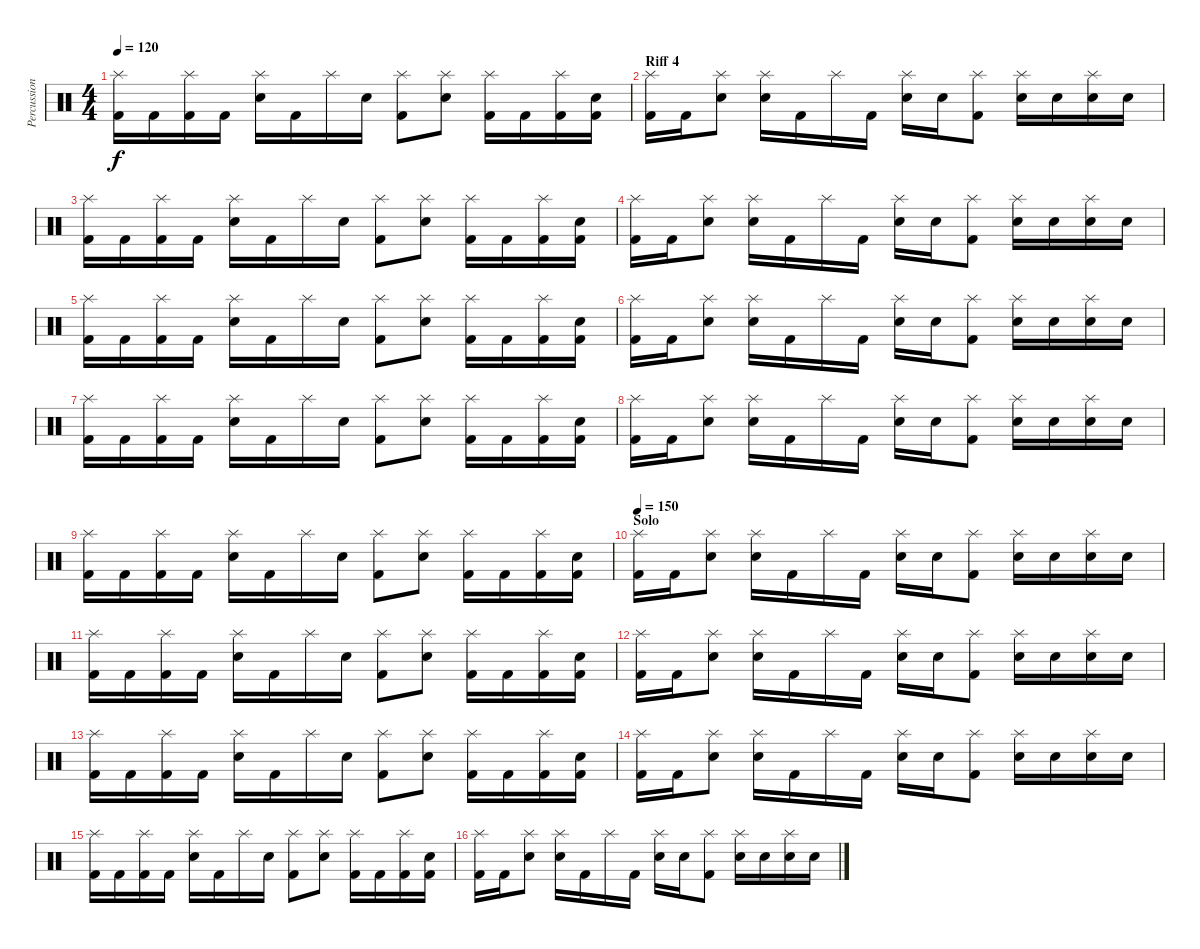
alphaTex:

\track ("Percussion" "Percussion") {instrument percussion}
\staff {score}
\articulation defaults
\ts (4 4)
\tempo 120
\clef neutral
\ks c
("Splash (hit)" "Kick (hit) 2").16{dy f} "Kick (hit) 2".16 ("Splash (hit)" "Kick (hit) 2").16 "Kick (hit) 2".16 ("Splash (hit)" "Snare (hit) 2").16 "Kick (hit) 2".16 "Splash (hit)".16 "Snare (hit) 2".16 ("Splash (hit)" "Kick (hit) 2").8 ("Splash (hit)" "Snare (hit) 2").8 ("Splash (hit)" "Kick (hit) 2").16 "Kick (hit) 2".16 ("Splash (hit)" "Kick (hit) 2").16 ("Snare (hit) 2" "Kick (hit) 2").16 |
\section ("" "Riff 4")
("Splash (hit)" "Kick (hit) 2").16 "Kick (hit) 2".16 ("Splash (hit)" "Snare (hit) 2").8 ("Splash (hit)" "Snare (hit) 2").16 "Kick (hit) 2".16 "Splash (hit)".16 "Kick (hit) 2".16 ("Splash (hit)" "Snare (hit) 2").16 "Snare (hit) 2".16 ("Splash (hit)" "Kick (hit) 2").8 ("Splash (hit)" "Snare (hit) 2").16 "Snare (hit) 2".16 ("Splash (hit)" "Snare (hit) 2").16 "Snare (hit) 2".16 |
("Splash (hit)" "Kick (hit) 2").16 "Kick (hit) 2".16 ("Splash (hit)" "Kick (hit) 2").16 "Kick (hit) 2".16 ("Splash (hit)" "Snare (hit) 2").16 "Kick (hit) 2".16 "Splash (hit)".16 "Snare (hit) 2".16 ("Splash (hit)" "Kick (hit) 2").8 ("Splash (hit)" "Snare (hit) 2").8 ("Splash (hit)" "Kick (hit) 2").16 "Kick (hit) 2".16 ("Splash (hit)" "Kick (hit) 2").16 ("Snare (hit) 2" "Kick (hit) 2").16 |
("Splash (hit)" "Kick (hit) 2").16 "Kick (hit) 2".16 ("Splash (hit)" "Snare (hit) 2").8 ("Splash (hit)" "Snare (hit) 2").16 "Kick (hit) 2".16 "Splash (hit)".16 "Kick (hit) 2".16 ("Splash (hit)" "Snare (hit) 2").16 "Snare (hit) 2".16 ("Splash (hit)" "Kick (hit) 2").8 ("Splash (hit)" "Snare (hit) 2").16 "Snare (hit) 2".16 ("Splash (hit)" "Snare (hit) 2").16 "Snare (hit) 2".16 |
("Splash (hit)" "Kick (hit) 2").16 "Kick (hit) 2".16 ("Splash (hit)" "Kick (hit) 2").16 "Kick (hit) 2".16 ("Splash (hit)" "Snare (hit) 2").16 "Kick (hit) 2".16 "Splash (hit)".16 "Snare (hit) 2".16 ("Splash (hit)" "Kick (hit) 2").8 ("Splash (hit)" "Snare (hit) 2").8 ("Splash (hit)" "Kick (hit) 2").16 "Kick (hit) 2".16 ("Splash (hit)" "Kick (hit) 2").16 ("Snare (hit) 2" "Kick (hit) 2").16 |
("Splash (hit)" "Kick (hit) 2").16 "Kick (hit) 2".16 ("Splash (hit)" "Snare (hit) 2").8 ("Splash (hit)" "Snare (hit) 2").16 "Kick (hit) 2".16 "Splash (hit)".16 "Kick (hit) 2".16 ("Splash (hit)" "Snare (hit) 2").16 "Snare (hit) 2".16 ("Splash (hit)" "Kick (hit) 2").8 ("Splash (hit)" "Snare (hit) 2").16 "Snare (hit) 2".16 ("Splash (hit)" "Snare (hit) 2").16 "Snare (hit) 2".16 |
("Splash (hit)" "Kick (hit) 2").16 "Kick (hit) 2".16 ("Splash (hit)" "Kick (hit) 2").16 "Kick (hit) 2".16 ("Splash (hit)" "Snare (hit) 2").16 "Kick (hit) 2".16 "Splash (hit)".16 "Snare (hit) 2".16 ("Splash (hit)" "Kick (hit) 2").8 ("Splash (hit)" "Snare (hit) 2").8 ("Splash (hit)" "Kick (hit) 2").16 "Kick (hit) 2".16 ("Splash (hit)" "Kick (hit) 2").16 ("Snare (hit) 2" "Kick (hit) 2").16 |
("Splash (hit)" "Kick (hit) 2").16 "Kick (hit) 2".16 ("Splash (hit)" "Snare (hit) 2").8 ("Splash (hit)" "Snare (hit) 2").16 "Kick (hit) 2".16 "Splash (hit)".16 "Kick (hit) 2".16 ("Splash (hit)" "Snare (hit) 2").16 "Snare (hit) 2".16 ("Splash (hit)" "Kick (hit) 2").8 ("Splash (hit)" "Snare (hit) 2").16 "Snare (hit) 2".16 ("Splash (hit)" "Snare (hit) 2").16 "Snare (hit) 2".16 |
("Splash (hit)" "Kick (hit) 2").16 "Kick (hit) 2".16 ("Splash (hit)" "Kick (hit) 2").16 "Kick (hit) 2".16 ("Splash (hit)" "Snare (hit) 2").16 "Kick (hit) 2".16 "Splash (hit)".16 "Snare (hit) 2".16 ("Splash (hit)" "Kick (hit) 2").8 ("Splash (hit)" "Snare (hit) 2").8 ("Splash (hit)" "Kick (hit) 2").16 "Kick (hit) 2".16 ("Splash (hit)" "Kick (hit) 2").16 ("Snare (hit) 2" "Kick (hit) 2").16 |
\section ("" "Solo")
\tempo 150
("Splash (hit)" "Kick (hit) 2").16 "Kick (hit) 2".16 ("Splash (hit)" "Snare (hit) 2").8 ("Splash (hit)" "Snare (hit) 2").16 "Kick (hit) 2".16 "Splash (hit)".16 "Kick (hit) 2".16 ("Splash (hit)" "Snare (hit) 2").16 "Snare (hit) 2".16 ("Splash (hit)" "Kick (hit) 2").8 ("Splash (hit)" "Snare (hit) 2").16 "Snare (hit) 2".16 ("Splash (hit)" "Snare (hit) 2").16 "Snare (hit) 2".16 |
("Splash (hit)" "Kick (hit) 2").16 "Kick (hit) 2".16 ("Splash (hit)" "Kick (hit) 2").16 "Kick (hit) 2".16 ("Splash (hit)" "Snare (hit) 2").16 "Kick (hit) 2".16 "Splash (hit)".16 "Snare (hit) 2".16 ("Splash (hit)" "Kick (hit) 2").8 ("Splash (hit)" "Snare (hit) 2").8 ("Splash (hit)" "Kick (hit) 2").16 "Kick (hit) 2".16 ("Splash (hit)" "Kick (hit) 2").16 ("Snare (hit) 2" "Kick (hit) 2").16 |
("Splash (hit)" "Kick (hit) 2").16 "Kick (hit) 2".16 ("Splash (hit)" "Snare (hit) 2").8 ("Splash (hit)" "Snare (hit) 2").16 "Kick (hit) 2".16 "Splash (hit)".16 "Kick (hit) 2".16 ("Splash (hit)" "Snare (hit) 2").16 "Snare (hit) 2".16 ("Splash (hit)" "Kick (hit) 2").8 ("Splash (hit)" "Snare (hit) 2").16 "Snare (hit) 2".16 ("Splash (hit)" "Snare (hit) 2").16 "Snare (hit) 2".16 |
("Splash (hit)" "Kick (hit) 2").16 "Kick (hit) 2".16 ("Splash (hit)" "Kick (hit) 2").16 "Kick (hit) 2".16 ("Splash (hit)" "Snare (hit) 2").16 "Kick (hit) 2".16 "Splash (hit)".16 "Snare (hit) 2".16 ("Splash (hit)" "Kick (hit) 2").8 ("Splash (hit)" "Snare (hit) 2").8 ("Splash (hit)" "Kick (hit) 2").16 "Kick (hit) 2".16 ("Splash (hit)" "Kick (hit) 2").16 ("Snare (hit) 2" "Kick (hit) 2").16 |
("Splash (hit)" "Kick (hit) 2").16 "Kick (hit) 2".16 ("Splash (hit)" "Snare (hit) 2").8 ("Splash (hit)" "Snare (hit) 2").16 "Kick (hit) 2".16 "Splash (hit)".16 "Kick (hit) 2".16 ("Splash (hit)" "Snare (hit) 2").16 "Snare (hit) 2".16 ("Splash (hit)" "Kick (hit) 2").8 ("Splash (hit)" "Snare (hit) 2").16 "Snare (hit) 2".16 ("Splash (hit)" "Snare (hit) 2").16 "Snare (hit) 2".16 |
("Splash (hit)" "Kick (hit) 2").16 "Kick (hit) 2".16 ("Splash (hit)" "Kick (hit) 2").16 "Kick (hit) 2".16 ("Splash (hit)" "Snare (hit) 2").16 "Kick (hit) 2".16 "Splash (hit)".16 "Snare (hit) 2".16 ("Splash (hit)" "Kick (hit) 2").8 ("Splash (hit)" "Snare (hit) 2").8 ("Splash (hit)" "Kick (hit) 2").16 "Kick (hit) 2".16 ("Splash (hit)" "Kick (hit) 2").16 ("Snare (hit) 2" "Kick (hit) 2").16 |
("Splash (hit)" "Kick (hit) 2").16 "Kick (hit) 2".16 ("Splash (hit)" "Snare (hit) 2").8 ("Splash (hit)" "Snare (hit) 2").16 "Kick (hit) 2".16 "Splash (hit)".16 "Kick (hit) 2".16 ("Splash (hit)" "Snare (hit) 2").16 "Snare (hit) 2".16 ("Splash (hit)" "Kick (hit) 2").8 ("Splash (hit)" "Snare (hit) 2").16 "Snare (hit) 2".16 ("Splash (hit)" "Snare (hit) 2").16 "Snare (hit) 2".16
